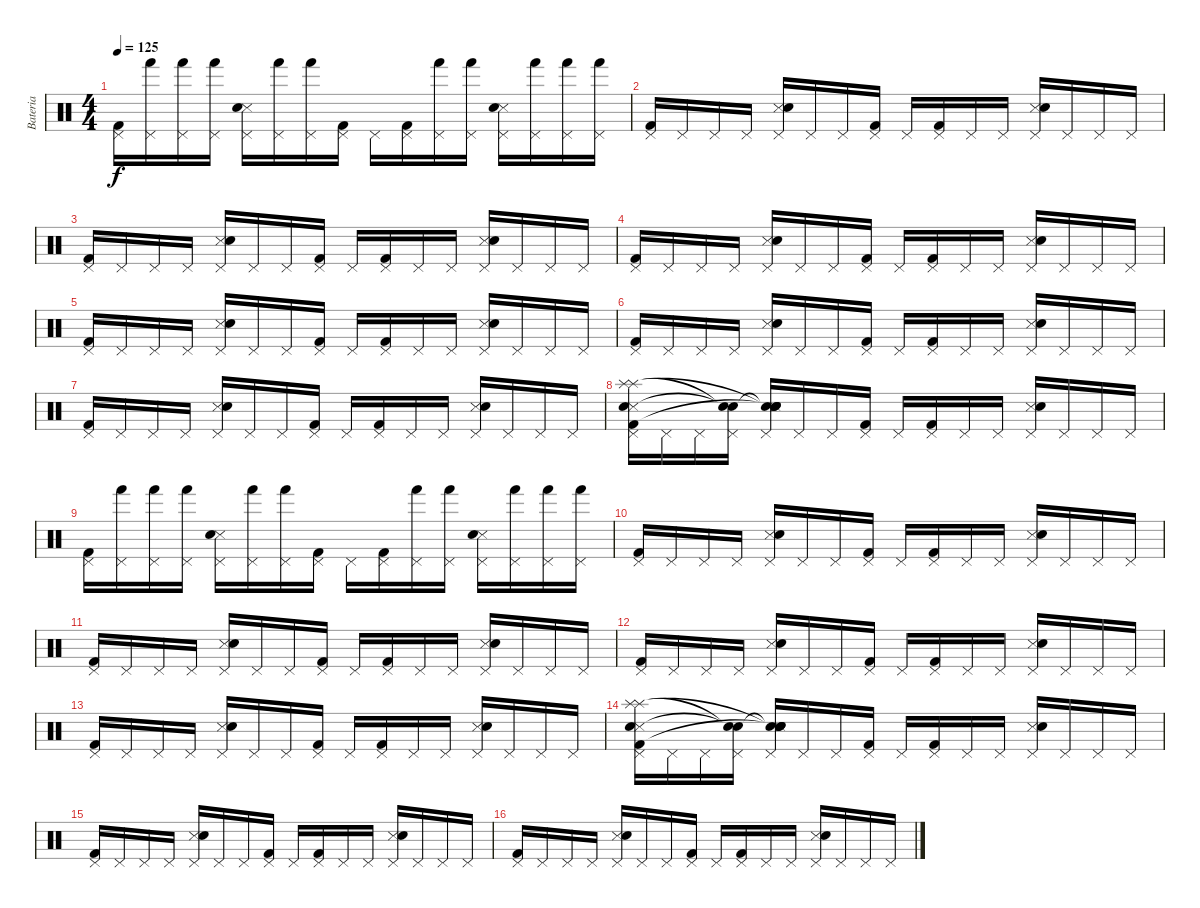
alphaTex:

\track ("Bateria" "Bateria") {instrument percussion}
\staff {score}
\articulation defaults
\ts (4 4)
\tempo 125
\clef neutral
\ks c
("Pedal Hi-Hat (hit)" "Kick (hit) 2").16{dy f} ("Pedal Hi-Hat (hit)" "Hand (hit)").16 ("Pedal Hi-Hat (hit)" "Hand (hit)").16 ("Pedal Hi-Hat (hit)" "Hand (hit)").16 ("Pedal Hi-Hat (hit)" "Snare (side stick) 3" "Snare (hit) 2").16 ("Pedal Hi-Hat (hit)" "Hand (hit)").16 ("Pedal Hi-Hat (hit)" "Hand (hit)").16 ("Pedal Hi-Hat (hit)" "Kick (hit) 2").16 "Pedal Hi-Hat (hit)".16 ("Pedal Hi-Hat (hit)" "Kick (hit) 2").16 ("Pedal Hi-Hat (hit)" "Hand (hit)").16 ("Pedal Hi-Hat (hit)" "Hand (hit)").16 ("Pedal Hi-Hat (hit)" "Snare (side stick) 3" "Snare (hit) 2").16 ("Pedal Hi-Hat (hit)" "Hand (hit)").16 ("Pedal Hi-Hat (hit)" "Hand (hit)").16 ("Pedal Hi-Hat (hit)" "Hand (hit)").16 |
("Pedal Hi-Hat (hit)" "Kick (hit) 2").16 "Pedal Hi-Hat (hit)".16 "Pedal Hi-Hat (hit)".16 "Pedal Hi-Hat (hit)".16 ("Pedal Hi-Hat (hit)" "Snare (side stick) 3" "Snare (hit) 2").16 "Pedal Hi-Hat (hit)".16 "Pedal Hi-Hat (hit)".16 ("Pedal Hi-Hat (hit)" "Kick (hit) 2").16 "Pedal Hi-Hat (hit)".16 ("Pedal Hi-Hat (hit)" "Kick (hit) 2").16 "Pedal Hi-Hat (hit)".16 "Pedal Hi-Hat (hit)".16 ("Pedal Hi-Hat (hit)" "Snare (side stick) 3" "Snare (hit) 2").16 "Pedal Hi-Hat (hit)".16 "Pedal Hi-Hat (hit)".16 "Pedal Hi-Hat (hit)".16 |
("Pedal Hi-Hat (hit)" "Kick (hit) 2").16 "Pedal Hi-Hat (hit)".16 "Pedal Hi-Hat (hit)".16 "Pedal Hi-Hat (hit)".16 ("Pedal Hi-Hat (hit)" "Snare (side stick) 3" "Snare (hit) 2").16 "Pedal Hi-Hat (hit)".16 "Pedal Hi-Hat (hit)".16 ("Pedal Hi-Hat (hit)" "Kick (hit) 2").16 "Pedal Hi-Hat (hit)".16 ("Pedal Hi-Hat (hit)" "Kick (hit) 2").16 "Pedal Hi-Hat (hit)".16 "Pedal Hi-Hat (hit)".16 ("Pedal Hi-Hat (hit)" "Snare (side stick) 3" "Snare (hit) 2").16 "Pedal Hi-Hat (hit)".16 "Pedal Hi-Hat (hit)".16 "Pedal Hi-Hat (hit)".16 |
("Pedal Hi-Hat (hit)" "Kick (hit) 2").16 "Pedal Hi-Hat (hit)".16 "Pedal Hi-Hat (hit)".16 "Pedal Hi-Hat (hit)".16 ("Pedal Hi-Hat (hit)" "Snare (side stick) 3" "Snare (hit) 2").16 "Pedal Hi-Hat (hit)".16 "Pedal Hi-Hat (hit)".16 ("Pedal Hi-Hat (hit)" "Kick (hit) 2").16 "Pedal Hi-Hat (hit)".16 ("Pedal Hi-Hat (hit)" "Kick (hit) 2").16 "Pedal Hi-Hat (hit)".16 "Pedal Hi-Hat (hit)".16 ("Pedal Hi-Hat (hit)" "Snare (side stick) 3" "Snare (hit) 2").16 "Pedal Hi-Hat (hit)".16 "Pedal Hi-Hat (hit)".16 "Pedal Hi-Hat (hit)".16 |
("Pedal Hi-Hat (hit)" "Kick (hit) 2").16 "Pedal Hi-Hat (hit)".16 "Pedal Hi-Hat (hit)".16 "Pedal Hi-Hat (hit)".16 ("Pedal Hi-Hat (hit)" "Snare (side stick) 3" "Snare (hit) 2").16 "Pedal Hi-Hat (hit)".16 "Pedal Hi-Hat (hit)".16 ("Pedal Hi-Hat (hit)" "Kick (hit) 2").16 "Pedal Hi-Hat (hit)".16 ("Pedal Hi-Hat (hit)" "Kick (hit) 2").16 "Pedal Hi-Hat (hit)".16 "Pedal Hi-Hat (hit)".16 ("Pedal Hi-Hat (hit)" "Snare (side stick) 3" "Snare (hit) 2").16 "Pedal Hi-Hat (hit)".16 "Pedal Hi-Hat (hit)".16 "Pedal Hi-Hat (hit)".16 |
("Pedal Hi-Hat (hit)" "Kick (hit) 2").16 "Pedal Hi-Hat (hit)".16 "Pedal Hi-Hat (hit)".16 "Pedal Hi-Hat (hit)".16 ("Pedal Hi-Hat (hit)" "Snare (side stick) 3" "Snare (hit) 2").16 "Pedal Hi-Hat (hit)".16 "Pedal Hi-Hat (hit)".16 ("Pedal Hi-Hat (hit)" "Kick (hit) 2").16 "Pedal Hi-Hat (hit)".16 ("Pedal Hi-Hat (hit)" "Kick (hit) 2").16 "Pedal Hi-Hat (hit)".16 "Pedal Hi-Hat (hit)".16 ("Pedal Hi-Hat (hit)" "Snare (side stick) 3" "Snare (hit) 2").16 "Pedal Hi-Hat (hit)".16 "Pedal Hi-Hat (hit)".16 "Pedal Hi-Hat (hit)".16 |
("Pedal Hi-Hat (hit)" "Kick (hit) 2").16 "Pedal Hi-Hat (hit)".16 "Pedal Hi-Hat (hit)".16 "Pedal Hi-Hat (hit)".16 ("Pedal Hi-Hat (hit)" "Snare (side stick) 3" "Snare (hit) 2").16 "Pedal Hi-Hat (hit)".16 "Pedal Hi-Hat (hit)".16 ("Pedal Hi-Hat (hit)" "Kick (hit) 2").16 "Pedal Hi-Hat (hit)".16 ("Pedal Hi-Hat (hit)" "Kick (hit) 2").16 "Pedal Hi-Hat (hit)".16 "Pedal Hi-Hat (hit)".16 ("Pedal Hi-Hat (hit)" "Snare (side stick) 3" "Snare (hit) 2").16 "Pedal Hi-Hat (hit)".16 "Pedal Hi-Hat (hit)".16 "Pedal Hi-Hat (hit)".16 |
("Pedal Hi-Hat (hit)" "Splash (hit)" "Snare (side stick) 3" "Snare (hit) 2" "Splash (hit)" "Kick (hit) 2").16 "Pedal Hi-Hat (hit)".16 "Pedal Hi-Hat (hit)".16 ("Pedal Hi-Hat (hit)" "Snare (hit)"{t} "Snare (hit)"{t}).16 ("Pedal Hi-Hat (hit)" "Snare (hit)"{t} "Snare (side stick) 3" "Snare (hit) 2" "Snare (hit)"{t} "Snare (hit)"{t}).16 "Pedal Hi-Hat (hit)".16 "Pedal Hi-Hat (hit)".16 ("Pedal Hi-Hat (hit)" "Kick (hit) 2").16 "Pedal Hi-Hat (hit)".16 ("Pedal Hi-Hat (hit)" "Kick (hit) 2").16 "Pedal Hi-Hat (hit)".16 "Pedal Hi-Hat (hit)".16 ("Pedal Hi-Hat (hit)" "Snare (side stick) 3" "Snare (hit) 2").16 "Pedal Hi-Hat (hit)".16 "Pedal Hi-Hat (hit)".16 "Pedal Hi-Hat (hit)".16 |
("Pedal Hi-Hat (hit)" "Kick (hit) 2").16 ("Pedal Hi-Hat (hit)" "Hand (hit)").16 ("Pedal Hi-Hat (hit)" "Hand (hit)").16 ("Pedal Hi-Hat (hit)" "Hand (hit)").16 ("Pedal Hi-Hat (hit)" "Snare (side stick) 3" "Snare (hit) 2").16 ("Pedal Hi-Hat (hit)" "Hand (hit)").16 ("Pedal Hi-Hat (hit)" "Hand (hit)").16 ("Pedal Hi-Hat (hit)" "Kick (hit) 2").16 "Pedal Hi-Hat (hit)".16 ("Pedal Hi-Hat (hit)" "Kick (hit) 2").16 ("Pedal Hi-Hat (hit)" "Hand (hit)").16 ("Pedal Hi-Hat (hit)" "Hand (hit)").16 ("Pedal Hi-Hat (hit)" "Snare (side stick) 3" "Snare (hit) 2").16 ("Pedal Hi-Hat (hit)" "Hand (hit)").16 ("Pedal Hi-Hat (hit)" "Hand (hit)").16 ("Pedal Hi-Hat (hit)" "Hand (hit)").16 |
("Pedal Hi-Hat (hit)" "Kick (hit) 2").16 "Pedal Hi-Hat (hit)".16 "Pedal Hi-Hat (hit)".16 "Pedal Hi-Hat (hit)".16 ("Pedal Hi-Hat (hit)" "Snare (side stick) 3" "Snare (hit) 2").16 "Pedal Hi-Hat (hit)".16 "Pedal Hi-Hat (hit)".16 ("Pedal Hi-Hat (hit)" "Kick (hit) 2").16 "Pedal Hi-Hat (hit)".16 ("Pedal Hi-Hat (hit)" "Kick (hit) 2").16 "Pedal Hi-Hat (hit)".16 "Pedal Hi-Hat (hit)".16 ("Pedal Hi-Hat (hit)" "Snare (side stick) 3" "Snare (hit) 2").16 "Pedal Hi-Hat (hit)".16 "Pedal Hi-Hat (hit)".16 "Pedal Hi-Hat (hit)".16 |
("Pedal Hi-Hat (hit)" "Kick (hit) 2").16 "Pedal Hi-Hat (hit)".16 "Pedal Hi-Hat (hit)".16 "Pedal Hi-Hat (hit)".16 ("Pedal Hi-Hat (hit)" "Snare (side stick) 3" "Snare (hit) 2").16 "Pedal Hi-Hat (hit)".16 "Pedal Hi-Hat (hit)".16 ("Pedal Hi-Hat (hit)" "Kick (hit) 2").16 "Pedal Hi-Hat (hit)".16 ("Pedal Hi-Hat (hit)" "Kick (hit) 2").16 "Pedal Hi-Hat (hit)".16 "Pedal Hi-Hat (hit)".16 ("Pedal Hi-Hat (hit)" "Snare (side stick) 3" "Snare (hit) 2").16 "Pedal Hi-Hat (hit)".16 "Pedal Hi-Hat (hit)".16 "Pedal Hi-Hat (hit)".16 |
("Pedal Hi-Hat (hit)" "Kick (hit) 2").16 "Pedal Hi-Hat (hit)".16 "Pedal Hi-Hat (hit)".16 "Pedal Hi-Hat (hit)".16 ("Pedal Hi-Hat (hit)" "Snare (side stick) 3" "Snare (hit) 2").16 "Pedal Hi-Hat (hit)".16 "Pedal Hi-Hat (hit)".16 ("Pedal Hi-Hat (hit)" "Kick (hit) 2").16 "Pedal Hi-Hat (hit)".16 ("Pedal Hi-Hat (hit)" "Kick (hit) 2").16 "Pedal Hi-Hat (hit)".16 "Pedal Hi-Hat (hit)".16 ("Pedal Hi-Hat (hit)" "Snare (side stick) 3" "Snare (hit) 2").16 "Pedal Hi-Hat (hit)".16 "Pedal Hi-Hat (hit)".16 "Pedal Hi-Hat (hit)".16 |
("Pedal Hi-Hat (hit)" "Kick (hit) 2").16 "Pedal Hi-Hat (hit)".16 "Pedal Hi-Hat (hit)".16 "Pedal Hi-Hat (hit)".16 ("Pedal Hi-Hat (hit)" "Snare (side stick) 3" "Snare (hit) 2").16 "Pedal Hi-Hat (hit)".16 "Pedal Hi-Hat (hit)".16 ("Pedal Hi-Hat (hit)" "Kick (hit) 2").16 "Pedal Hi-Hat (hit)".16 ("Pedal Hi-Hat (hit)" "Kick (hit) 2").16 "Pedal Hi-Hat (hit)".16 "Pedal Hi-Hat (hit)".16 ("Pedal Hi-Hat (hit)" "Snare (side stick) 3" "Snare (hit) 2").16 "Pedal Hi-Hat (hit)".16 "Pedal Hi-Hat (hit)".16 "Pedal Hi-Hat (hit)".16 |
("Pedal Hi-Hat (hit)" "Splash (hit)" "Snare (side stick) 3" "Snare (hit) 2" "Splash (hit)" "Kick (hit) 2").16 "Pedal Hi-Hat (hit)".16 "Pedal Hi-Hat (hit)".16 ("Pedal Hi-Hat (hit)" "Snare (hit)"{t} "Snare (hit)"{t}).16 ("Pedal Hi-Hat (hit)" "Snare (hit)"{t} "Snare (side stick) 3" "Snare (hit) 2" "Snare (hit)"{t} "Snare (hit)"{t}).16 "Pedal Hi-Hat (hit)".16 "Pedal Hi-Hat (hit)".16 ("Pedal Hi-Hat (hit)" "Kick (hit) 2").16 "Pedal Hi-Hat (hit)".16 ("Pedal Hi-Hat (hit)" "Kick (hit) 2").16 "Pedal Hi-Hat (hit)".16 "Pedal Hi-Hat (hit)".16 ("Pedal Hi-Hat (hit)" "Snare (side stick) 3" "Snare (hit) 2").16 "Pedal Hi-Hat (hit)".16 "Pedal Hi-Hat (hit)".16 "Pedal Hi-Hat (hit)".16 |
("Pedal Hi-Hat (hit)" "Kick (hit) 2").16 "Pedal Hi-Hat (hit)".16 "Pedal Hi-Hat (hit)".16 "Pedal Hi-Hat (hit)".16 ("Pedal Hi-Hat (hit)" "Snare (side stick) 3" "Snare (hit) 2").16 "Pedal Hi-Hat (hit)".16 "Pedal Hi-Hat (hit)".16 ("Pedal Hi-Hat (hit)" "Kick (hit) 2").16 "Pedal Hi-Hat (hit)".16 ("Pedal Hi-Hat (hit)" "Kick (hit) 2").16 "Pedal Hi-Hat (hit)".16 "Pedal Hi-Hat (hit)".16 ("Pedal Hi-Hat (hit)" "Snare (side stick) 3" "Snare (hit) 2").16 "Pedal Hi-Hat (hit)".16 "Pedal Hi-Hat (hit)".16 "Pedal Hi-Hat (hit)".16 |
("Pedal Hi-Hat (hit)" "Kick (hit) 2").16 "Pedal Hi-Hat (hit)".16 "Pedal Hi-Hat (hit)".16 "Pedal Hi-Hat (hit)".16 ("Pedal Hi-Hat (hit)" "Snare (side stick) 3" "Snare (hit) 2").16 "Pedal Hi-Hat (hit)".16 "Pedal Hi-Hat (hit)".16 ("Pedal Hi-Hat (hit)" "Kick (hit) 2").16 "Pedal Hi-Hat (hit)".16 ("Pedal Hi-Hat (hit)" "Kick (hit) 2").16 "Pedal Hi-Hat (hit)".16 "Pedal Hi-Hat (hit)".16 ("Pedal Hi-Hat (hit)" "Snare (side stick) 3" "Snare (hit) 2").16 "Pedal Hi-Hat (hit)".16 "Pedal Hi-Hat (hit)".16 "Pedal Hi-Hat (hit)".16
